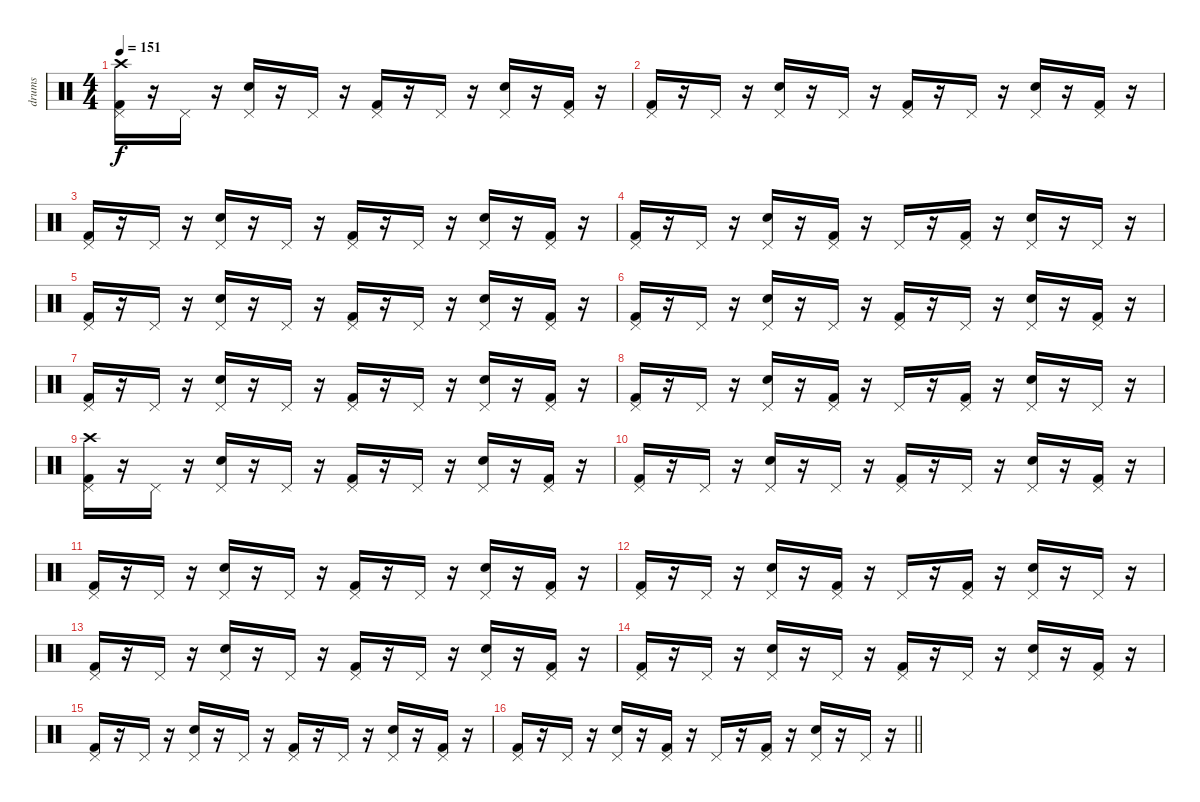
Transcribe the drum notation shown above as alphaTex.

\track ("drums" "drums") {instrument percussion}
\staff {score}
\articulation defaults
\ts (4 4)
\tempo 151
\clef neutral
\ks c
("Kick (hit) 2" "Pedal Hi-Hat (hit)" "Crash high (hit)").16{dy f} r.16 "Pedal Hi-Hat (hit)".16 r.16 ("Electric Snare (hit)" "Pedal Hi-Hat (hit)").16 r.16 "Pedal Hi-Hat (hit)".16 r.16 ("Kick (hit) 2" "Pedal Hi-Hat (hit)").16 r.16 "Pedal Hi-Hat (hit)".16 r.16 ("Electric Snare (hit)" "Pedal Hi-Hat (hit)").16 r.16 ("Kick (hit) 2" "Pedal Hi-Hat (hit)").16 r.16 |
("Kick (hit) 2" "Pedal Hi-Hat (hit)").16 r.16 "Pedal Hi-Hat (hit)".16 r.16 ("Electric Snare (hit)" "Pedal Hi-Hat (hit)").16 r.16 "Pedal Hi-Hat (hit)".16 r.16 ("Kick (hit) 2" "Pedal Hi-Hat (hit)").16 r.16 "Pedal Hi-Hat (hit)".16 r.16 ("Electric Snare (hit)" "Pedal Hi-Hat (hit)").16 r.16 ("Kick (hit) 2" "Pedal Hi-Hat (hit)").16 r.16 |
("Kick (hit) 2" "Pedal Hi-Hat (hit)").16 r.16 "Pedal Hi-Hat (hit)".16 r.16 ("Electric Snare (hit)" "Pedal Hi-Hat (hit)").16 r.16 "Pedal Hi-Hat (hit)".16 r.16 ("Kick (hit) 2" "Pedal Hi-Hat (hit)").16 r.16 "Pedal Hi-Hat (hit)".16 r.16 ("Electric Snare (hit)" "Pedal Hi-Hat (hit)").16 r.16 ("Kick (hit) 2" "Pedal Hi-Hat (hit)").16 r.16 |
("Kick (hit) 2" "Pedal Hi-Hat (hit)").16 r.16 "Pedal Hi-Hat (hit)".16 r.16 ("Electric Snare (hit)" "Pedal Hi-Hat (hit)").16 r.16 ("Kick (hit) 2" "Pedal Hi-Hat (hit)").16 r.16 "Pedal Hi-Hat (hit)".16 r.16 ("Kick (hit) 2" "Pedal Hi-Hat (hit)").16 r.16 ("Electric Snare (hit)" "Pedal Hi-Hat (hit)").16 r.16 "Pedal Hi-Hat (hit)".16 r.16 |
("Kick (hit) 2" "Pedal Hi-Hat (hit)").16 r.16 "Pedal Hi-Hat (hit)".16 r.16 ("Electric Snare (hit)" "Pedal Hi-Hat (hit)").16 r.16 "Pedal Hi-Hat (hit)".16 r.16 ("Kick (hit) 2" "Pedal Hi-Hat (hit)").16 r.16 "Pedal Hi-Hat (hit)".16 r.16 ("Electric Snare (hit)" "Pedal Hi-Hat (hit)").16 r.16 ("Kick (hit) 2" "Pedal Hi-Hat (hit)").16 r.16 |
("Kick (hit) 2" "Pedal Hi-Hat (hit)").16 r.16 "Pedal Hi-Hat (hit)".16 r.16 ("Electric Snare (hit)" "Pedal Hi-Hat (hit)").16 r.16 "Pedal Hi-Hat (hit)".16 r.16 ("Kick (hit) 2" "Pedal Hi-Hat (hit)").16 r.16 "Pedal Hi-Hat (hit)".16 r.16 ("Electric Snare (hit)" "Pedal Hi-Hat (hit)").16 r.16 ("Kick (hit) 2" "Pedal Hi-Hat (hit)").16 r.16 |
("Kick (hit) 2" "Pedal Hi-Hat (hit)").16 r.16 "Pedal Hi-Hat (hit)".16 r.16 ("Electric Snare (hit)" "Pedal Hi-Hat (hit)").16 r.16 "Pedal Hi-Hat (hit)".16 r.16 ("Kick (hit) 2" "Pedal Hi-Hat (hit)").16 r.16 "Pedal Hi-Hat (hit)".16 r.16 ("Electric Snare (hit)" "Pedal Hi-Hat (hit)").16 r.16 ("Kick (hit) 2" "Pedal Hi-Hat (hit)").16 r.16 |
("Kick (hit) 2" "Pedal Hi-Hat (hit)").16 r.16 "Pedal Hi-Hat (hit)".16 r.16 ("Electric Snare (hit)" "Pedal Hi-Hat (hit)").16 r.16 ("Kick (hit) 2" "Pedal Hi-Hat (hit)").16 r.16 "Pedal Hi-Hat (hit)".16 r.16 ("Kick (hit) 2" "Pedal Hi-Hat (hit)").16 r.16 ("Electric Snare (hit)" "Pedal Hi-Hat (hit)").16 r.16 "Pedal Hi-Hat (hit)".16 r.16 |
("Kick (hit) 2" "Pedal Hi-Hat (hit)" "Crash high (hit)").16 r.16 "Pedal Hi-Hat (hit)".16 r.16 ("Electric Snare (hit)" "Pedal Hi-Hat (hit)").16 r.16 "Pedal Hi-Hat (hit)".16 r.16 ("Kick (hit) 2" "Pedal Hi-Hat (hit)").16 r.16 "Pedal Hi-Hat (hit)".16 r.16 ("Electric Snare (hit)" "Pedal Hi-Hat (hit)").16 r.16 ("Kick (hit) 2" "Pedal Hi-Hat (hit)").16 r.16 |
("Kick (hit) 2" "Pedal Hi-Hat (hit)").16 r.16 "Pedal Hi-Hat (hit)".16 r.16 ("Electric Snare (hit)" "Pedal Hi-Hat (hit)").16 r.16 "Pedal Hi-Hat (hit)".16 r.16 ("Kick (hit) 2" "Pedal Hi-Hat (hit)").16 r.16 "Pedal Hi-Hat (hit)".16 r.16 ("Electric Snare (hit)" "Pedal Hi-Hat (hit)").16 r.16 ("Kick (hit) 2" "Pedal Hi-Hat (hit)").16 r.16 |
("Kick (hit) 2" "Pedal Hi-Hat (hit)").16 r.16 "Pedal Hi-Hat (hit)".16 r.16 ("Electric Snare (hit)" "Pedal Hi-Hat (hit)").16 r.16 "Pedal Hi-Hat (hit)".16 r.16 ("Kick (hit) 2" "Pedal Hi-Hat (hit)").16 r.16 "Pedal Hi-Hat (hit)".16 r.16 ("Electric Snare (hit)" "Pedal Hi-Hat (hit)").16 r.16 ("Kick (hit) 2" "Pedal Hi-Hat (hit)").16 r.16 |
("Kick (hit) 2" "Pedal Hi-Hat (hit)").16 r.16 "Pedal Hi-Hat (hit)".16 r.16 ("Electric Snare (hit)" "Pedal Hi-Hat (hit)").16 r.16 ("Kick (hit) 2" "Pedal Hi-Hat (hit)").16 r.16 "Pedal Hi-Hat (hit)".16 r.16 ("Kick (hit) 2" "Pedal Hi-Hat (hit)").16 r.16 ("Electric Snare (hit)" "Pedal Hi-Hat (hit)").16 r.16 "Pedal Hi-Hat (hit)".16 r.16 |
("Kick (hit) 2" "Pedal Hi-Hat (hit)").16 r.16 "Pedal Hi-Hat (hit)".16 r.16 ("Electric Snare (hit)" "Pedal Hi-Hat (hit)").16 r.16 "Pedal Hi-Hat (hit)".16 r.16 ("Kick (hit) 2" "Pedal Hi-Hat (hit)").16 r.16 "Pedal Hi-Hat (hit)".16 r.16 ("Electric Snare (hit)" "Pedal Hi-Hat (hit)").16 r.16 ("Kick (hit) 2" "Pedal Hi-Hat (hit)").16 r.16 |
("Kick (hit) 2" "Pedal Hi-Hat (hit)").16 r.16 "Pedal Hi-Hat (hit)".16 r.16 ("Electric Snare (hit)" "Pedal Hi-Hat (hit)").16 r.16 "Pedal Hi-Hat (hit)".16 r.16 ("Kick (hit) 2" "Pedal Hi-Hat (hit)").16 r.16 "Pedal Hi-Hat (hit)".16 r.16 ("Electric Snare (hit)" "Pedal Hi-Hat (hit)").16 r.16 ("Kick (hit) 2" "Pedal Hi-Hat (hit)").16 r.16 |
("Kick (hit) 2" "Pedal Hi-Hat (hit)").16 r.16 "Pedal Hi-Hat (hit)".16 r.16 ("Electric Snare (hit)" "Pedal Hi-Hat (hit)").16 r.16 "Pedal Hi-Hat (hit)".16 r.16 ("Kick (hit) 2" "Pedal Hi-Hat (hit)").16 r.16 "Pedal Hi-Hat (hit)".16 r.16 ("Electric Snare (hit)" "Pedal Hi-Hat (hit)").16 r.16 ("Kick (hit) 2" "Pedal Hi-Hat (hit)").16 r.16 |
\barLineRight lightlight
("Kick (hit) 2" "Pedal Hi-Hat (hit)").16 r.16 "Pedal Hi-Hat (hit)".16 r.16 ("Electric Snare (hit)" "Pedal Hi-Hat (hit)").16 r.16 ("Kick (hit) 2" "Pedal Hi-Hat (hit)").16 r.16 "Pedal Hi-Hat (hit)".16 r.16 ("Kick (hit) 2" "Pedal Hi-Hat (hit)").16 r.16 ("Electric Snare (hit)" "Pedal Hi-Hat (hit)").16 r.16 "Pedal Hi-Hat (hit)".16 r.16
